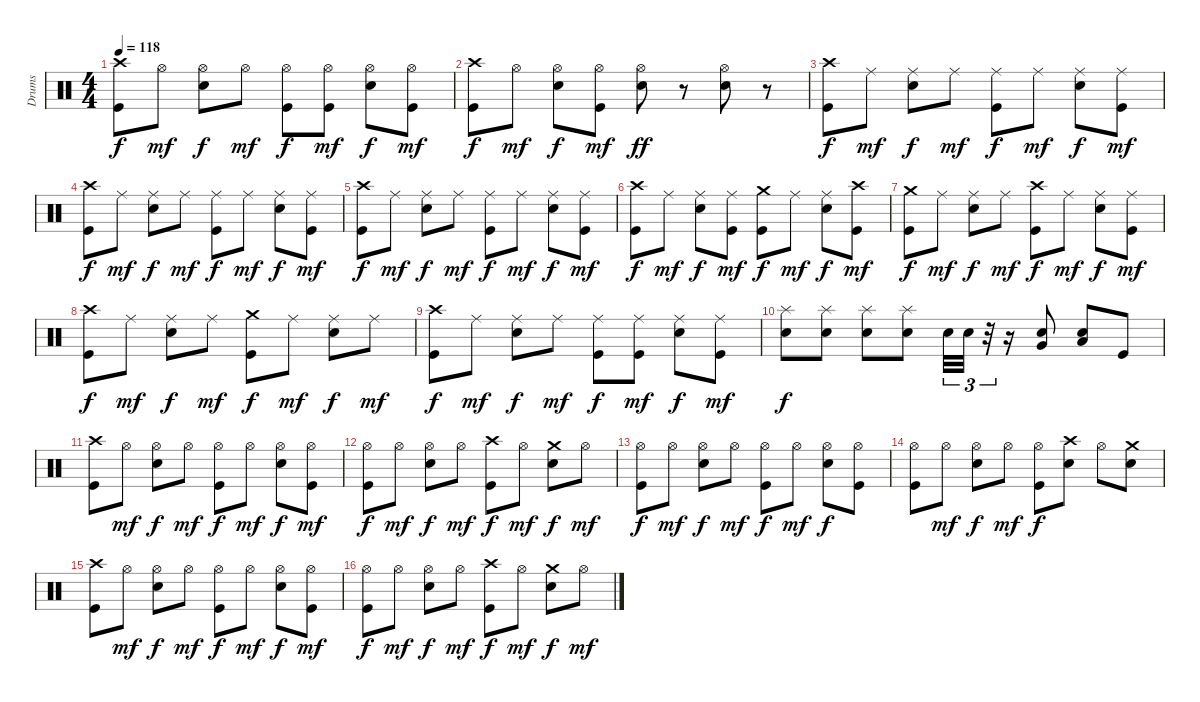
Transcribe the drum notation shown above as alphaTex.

\track ("Drums" "Drums") {instrument percussion}
\staff {score}
\articulation defaults
\ts (4 4)
\tempo 118
\clef neutral
\ks c
("Crash high (hit)" "Kick (hit)").8{dy f} "Hi-Hat (open)".8{dy mf} ("Hi-Hat (open)" "Snare (hit) 2").8{dy f} "Hi-Hat (open)".8{dy mf} ("Hi-Hat (open)" "Kick (hit)").8{dy f} ("Hi-Hat (open)" "Kick (hit)").8{dy mf} ("Hi-Hat (open)" "Snare (hit) 2").8{dy f} ("Hi-Hat (open)" "Kick (hit)").8{dy mf} |
("Crash high (hit)" "Kick (hit)").8{dy f} "Hi-Hat (open)".8{dy mf} ("Hi-Hat (open)" "Snare (hit) 2").8{dy f} ("Hi-Hat (open)" "Kick (hit)").8{dy mf} ("Hi-Hat (open)" "Snare (hit) 2").8{dy ff} r.8 ("Hi-Hat (open)" "Snare (hit) 2").8 r.8 |
("Kick (hit)" "Crash high (hit)").8{dy f} "Ride (middle)".8{dy mf} ("Ride (middle)" "Snare (hit) 2").8{dy f} "Ride (middle)".8{dy mf} ("Ride (middle)" "Kick (hit)").8{dy f} "Ride (middle)".8{dy mf} ("Ride (middle)" "Snare (hit) 2").8{dy f} ("Ride (middle)" "Kick (hit)").8{dy mf} |
("Kick (hit)" "Crash high (hit)").8{dy f} "Ride (middle)".8{dy mf} ("Ride (middle)" "Snare (hit) 2").8{dy f} "Ride (middle)".8{dy mf} ("Ride (middle)" "Kick (hit)").8{dy f} "Ride (middle)".8{dy mf} ("Ride (middle)" "Snare (hit) 2").8{dy f} ("Ride (middle)" "Kick (hit)").8{dy mf} |
("Kick (hit)" "Crash high (hit)").8{dy f} "Ride (middle)".8{dy mf} ("Ride (middle)" "Snare (hit) 2").8{dy f} "Ride (middle)".8{dy mf} ("Ride (middle)" "Kick (hit)").8{dy f} "Ride (middle)".8{dy mf} ("Ride (middle)" "Snare (hit) 2").8{dy f} ("Ride (middle)" "Kick (hit)").8{dy mf} |
("Kick (hit)" "Crash high (hit)").8{dy f} "Ride (middle)".8{dy mf} ("Ride (middle)" "Snare (hit) 2").8{dy f} ("Ride (middle)" "Kick (hit)").8{dy mf} ("Kick (hit)" "Crash medium (hit)").8{dy f} "Ride (middle)".8{dy mf} ("Ride (middle)" "Snare (hit) 2").8{dy f} ("Crash high (hit)" "Kick (hit)").8{dy mf} |
("Crash medium (hit)" "Kick (hit)").8{dy f} "Ride (middle)".8{dy mf} ("Ride (middle)" "Snare (hit) 2").8{dy f} "Ride (middle)".8{dy mf} ("Crash high (hit)" "Kick (hit)").8{dy f} "Ride (middle)".8{dy mf} ("Ride (middle)" "Snare (hit) 2").8{dy f} ("Ride (middle)" "Kick (hit)").8{dy mf} |
("Kick (hit)" "Crash high (hit)").8{dy f} "Ride (middle)".8{dy mf} ("Ride (middle)" "Snare (hit) 2").8{dy f} "Ride (middle)".8{dy mf} ("Crash medium (hit)" "Kick (hit)").8{dy f} "Ride (middle)".8{dy mf} ("Ride (middle)" "Snare (hit) 2").8{dy f} "Ride (middle)".8{dy mf} |
("Kick (hit)" "Crash high (hit)").8{dy f} "Ride (middle)".8{dy mf} ("Ride (middle)" "Snare (hit) 2").8{dy f} "Ride (middle)".8{dy mf} ("Ride (middle)" "Kick (hit)").8{dy f} ("Ride (middle)" "Kick (hit)").8{dy mf} ("Ride (middle)" "Snare (hit) 2").8{dy f} ("Ride (middle)" "Kick (hit)").8{dy mf} |
("Splash (hit)" "Snare (hit) 2").8{dy f} ("Splash (hit)" "Snare (hit) 2").8 ("Splash (hit)" "Snare (hit) 2").8 ("Splash (hit)" "Snare (hit) 2").8 "Snare (hit) 2".32{tu (3 2)} "Snare (hit) 2".32{tu (3 2)} r.32{tu (3 2)} r.16 ("Snare (hit) 2" "Very Low Tom (hit)").8 ("Snare (hit) 2" "Low Floor Tom (hit)").8 "Kick (hit)".8 |
("Kick (hit)" "Crash high (hit)").8 "Hi-Hat (open)".8{dy mf} ("Hi-Hat (open)" "Snare (hit) 2").8{dy f} "Hi-Hat (open)".8{dy mf} ("Hi-Hat (open)" "Kick (hit)").8{dy f} "Hi-Hat (open)".8{dy mf} ("Hi-Hat (open)" "Snare (hit) 2").8{dy f} ("Hi-Hat (open)" "Kick (hit)").8{dy mf} |
("Hi-Hat (open)" "Kick (hit)").8{dy f} "Hi-Hat (open)".8{dy mf} ("Hi-Hat (open)" "Snare (hit) 2").8{dy f} "Hi-Hat (open)".8{dy mf} ("Kick (hit)" "Crash high (hit)").8{dy f} "Hi-Hat (open)".8{dy mf} ("Snare (hit) 2" "Crash medium (hit)").8{dy f} "Hi-Hat (open)".8{dy mf} |
("Hi-Hat (open)" "Kick (hit)").8{dy f} "Hi-Hat (open)".8{dy mf} ("Hi-Hat (open)" "Snare (hit) 2").8{dy f} "Hi-Hat (open)".8{dy mf} ("Hi-Hat (open)" "Kick (hit)").8{dy f} "Hi-Hat (open)".8{dy mf} ("Hi-Hat (open)" "Snare (hit) 2").8{dy f} ("Hi-Hat (open)" "Kick (hit)").8 |
("Hi-Hat (open)" "Kick (hit)").8 "Hi-Hat (open)".8{dy mf} ("Hi-Hat (open)" "Snare (hit) 2").8{dy f} "Hi-Hat (open)".8{dy mf} ("Hi-Hat (open)" "Kick (hit)").8{dy f} ("Snare (hit) 2" "Crash high (hit)").8 "Hi-Hat (open)".8 ("Snare (hit) 2" "Crash medium (hit)").8 |
("Crash high (hit)" "Kick (hit)").8 "Hi-Hat (open)".8{dy mf} ("Hi-Hat (open)" "Snare (hit) 2").8{dy f} "Hi-Hat (open)".8{dy mf} ("Hi-Hat (open)" "Kick (hit)").8{dy f} "Hi-Hat (open)".8{dy mf} ("Hi-Hat (open)" "Snare (hit) 2").8{dy f} ("Hi-Hat (open)" "Kick (hit)").8{dy mf} |
("Hi-Hat (open)" "Kick (hit)").8{dy f} "Hi-Hat (open)".8{dy mf} ("Hi-Hat (open)" "Snare (hit) 2").8{dy f} "Hi-Hat (open)".8{dy mf} ("Kick (hit)" "Crash high (hit)").8{dy f} "Hi-Hat (open)".8{dy mf} ("Snare (hit) 2" "Crash medium (hit)").8{dy f} "Hi-Hat (open)".8{dy mf}
